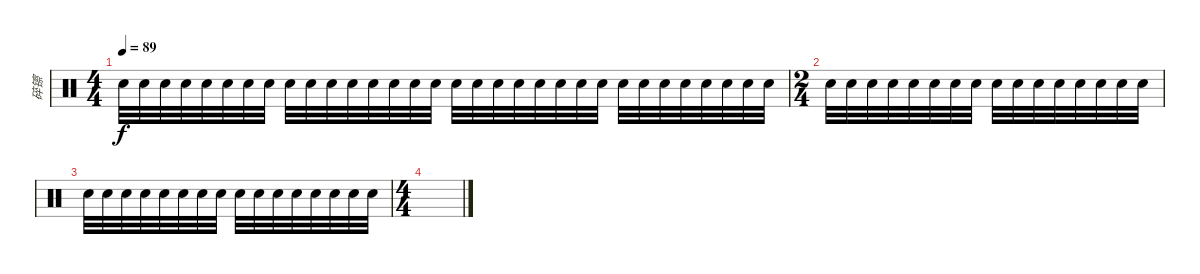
\track ("碎镲" "碎镲") {instrument percussion}
\staff {score}
\articulation defaults
\ts (4 4)
\tempo 89
\clef neutral
\ks c "Snare (hit) 2".32{dy f volume 5} "Snare (hit) 2".32 "Snare (hit) 2".32 "Snare (hit) 2".32 "Snare (hit) 2".32 "Snare (hit) 2".32 "Snare (hit) 2".32 "Snare (hit) 2".32 "Snare (hit) 2".32 "Snare (hit) 2".32 "Snare (hit) 2".32 "Snare (hit) 2".32 "Snare (hit) 2".32 "Snare (hit) 2".32 "Snare (hit) 2".32 "Snare (hit) 2".32 "Snare (hit) 2".32 "Snare (hit) 2".32 "Snare (hit) 2".32 "Snare (hit) 2".32 "Snare (hit) 2".32 "Snare (hit) 2".32 "Snare (hit) 2".32 "Snare (hit) 2".32 "Snare (hit) 2".32 "Snare (hit) 2".32 "Snare (hit) 2".32 "Snare (hit) 2".32 "Snare (hit) 2".32 "Snare (hit) 2".32 "Snare (hit) 2".32 "Snare (hit) 2".32
|
\ts (2 4)
"Snare (hit) 2".32 "Snare (hit) 2".32 "Snare (hit) 2".32 "Snare (hit) 2".32 "Snare (hit) 2".32 "Snare (hit) 2".32 "Snare (hit) 2".32 "Snare (hit) 2".32 "Snare (hit) 2".32 "Snare (hit) 2".32 "Snare (hit) 2".32 "Snare (hit) 2".32 "Snare (hit) 2".32 "Snare (hit) 2".32 "Snare (hit) 2".32 "Snare (hit) 2".32 |
"Snare (hit) 2".32 "Snare (hit) 2".32 "Snare (hit) 2".32 "Snare (hit) 2".32 "Snare (hit) 2".32 "Snare (hit) 2".32 "Snare (hit) 2".32 "Snare (hit) 2".32 "Snare (hit) 2".32 "Snare (hit) 2".32 "Snare (hit) 2".32 "Snare (hit) 2".32 "Snare (hit) 2".32 "Snare (hit) 2".32 "Snare (hit) 2".32 "Snare (hit) 2".32 |
\ts (4 4)
